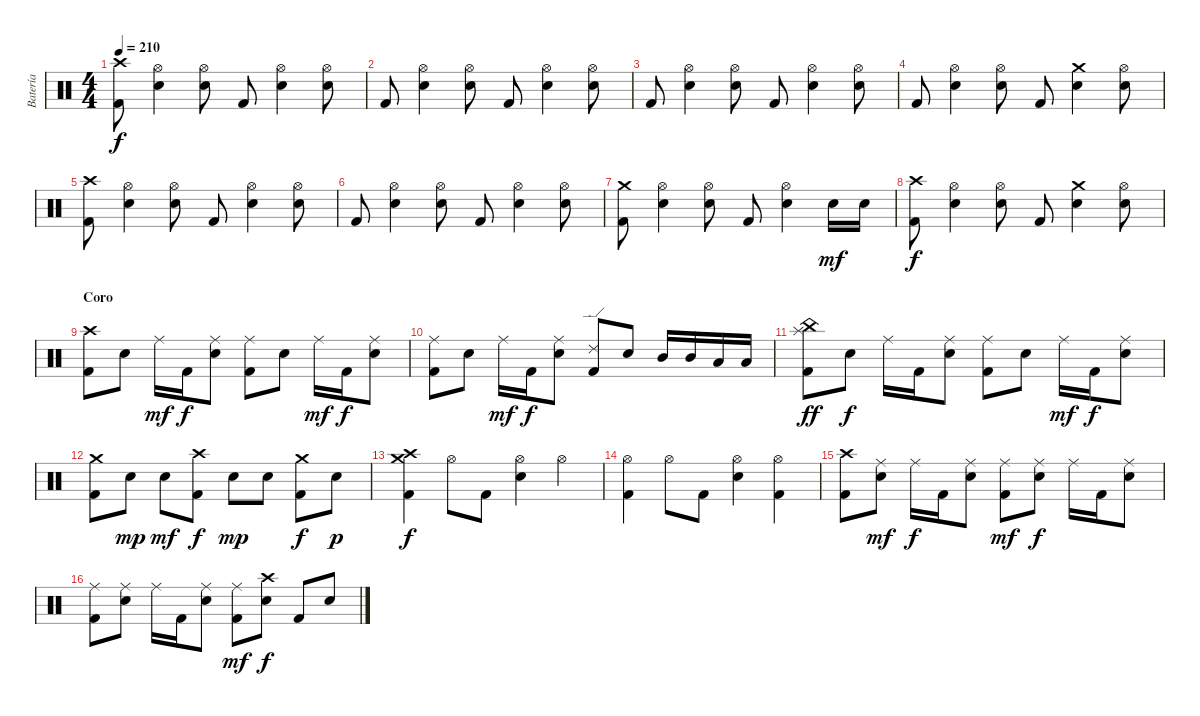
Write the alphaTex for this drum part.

\track ("Batería" "Batería") {instrument percussion}
\staff {score}
\articulation defaults
\ts (4 4)
\tempo 210
\clef neutral
\ks c
("Crash high (hit)" "Kick (hit) 2").8{dy f} ("Hi-Hat (open)" "Electric Snare (hit)").4 ("Hi-Hat (open)" "Electric Snare (hit)").8 "Kick (hit) 2".8 ("Hi-Hat (open)" "Electric Snare (hit)").4 ("Hi-Hat (open)" "Electric Snare (hit)").8 |
"Kick (hit) 2".8 ("Hi-Hat (open)" "Electric Snare (hit)").4 ("Hi-Hat (open)" "Electric Snare (hit)").8 "Kick (hit) 2".8 ("Hi-Hat (open)" "Electric Snare (hit)").4 ("Hi-Hat (open)" "Electric Snare (hit)").8 |
"Kick (hit) 2".8 ("Hi-Hat (open)" "Electric Snare (hit)").4 ("Hi-Hat (open)" "Electric Snare (hit)").8 "Kick (hit) 2".8 ("Hi-Hat (open)" "Electric Snare (hit)").4 ("Hi-Hat (open)" "Electric Snare (hit)").8 |
"Kick (hit) 2".8 ("Hi-Hat (open)" "Electric Snare (hit)").4 ("Hi-Hat (open)" "Electric Snare (hit)").8 "Kick (hit) 2".8 ("Crash medium (hit)" "Electric Snare (hit)").4 ("Hi-Hat (open)" "Electric Snare (hit)").8 |
("Crash high (hit)" "Kick (hit) 2").8 ("Hi-Hat (open)" "Electric Snare (hit)").4 ("Hi-Hat (open)" "Electric Snare (hit)").8 "Kick (hit) 2".8 ("Hi-Hat (open)" "Electric Snare (hit)").4 ("Hi-Hat (open)" "Electric Snare (hit)").8 |
"Kick (hit) 2".8 ("Hi-Hat (open)" "Electric Snare (hit)").4 ("Hi-Hat (open)" "Electric Snare (hit)").8 "Kick (hit) 2".8 ("Hi-Hat (open)" "Electric Snare (hit)").4 ("Hi-Hat (open)" "Electric Snare (hit)").8 |
("Crash medium (hit)" "Kick (hit) 2").8 ("Hi-Hat (open)" "Electric Snare (hit)").4 ("Hi-Hat (open)" "Electric Snare (hit)").8 "Kick (hit) 2".8 ("Hi-Hat (open)" "Electric Snare (hit)").4 "Electric Snare (hit)".16{dy mf} "Electric Snare (hit)".16 |
("Crash high (hit)" "Kick (hit) 2").8{dy f} ("Hi-Hat (open)" "Electric Snare (hit)").4 ("Hi-Hat (open)" "Electric Snare (hit)").8 "Kick (hit) 2".8 ("Crash medium (hit)" "Electric Snare (hit)").4 ("Hi-Hat (open)" "Electric Snare (hit)").8 |
\section ("" "Coro")
("Crash high (hit)" "Kick (hit) 2").8 "Electric Snare (hit)".8 "Ride (middle)".16{dy mf} "Kick (hit) 2".16{dy f} ("Ride (middle)" "Electric Snare (hit)").8 ("Ride (middle)" "Kick (hit) 2").8 "Electric Snare (hit)".8 "Ride (middle)".16{dy mf} "Kick (hit) 2".16{dy f} ("Ride (middle)" "Electric Snare (hit)").8 |
("Ride (middle)" "Kick (hit) 2").8 "Electric Snare (hit)".8 "Ride (middle)".16{dy mf} "Kick (hit) 2".16{dy f} ("Ride (middle)" "Electric Snare (hit)").8 ("Ride (edge) 2" "Kick (hit) 2").8 "Electric Snare (hit)".8 "Mid Tom (hit)".16 "Mid Tom (hit)".16 "Low Tom (hit)".16 "Low Tom (hit)".16 |
("Splash (hit)" "China (hit)" "Kick (hit) 2").8{dy ff} "Electric Snare (hit)".8{dy f} "Ride (middle)".16 "Kick (hit) 2".16 ("Ride (middle)" "Electric Snare (hit)").8 ("Ride (middle)" "Kick (hit) 2").8 "Electric Snare (hit)".8 "Ride (middle)".16{dy mf} "Kick (hit) 2".16{dy f} ("Ride (middle)" "Electric Snare (hit)").8 |
("Crash medium (hit)" "Kick (hit) 2").8 "Electric Snare (hit)".8{dy mp} "Electric Snare (hit)".8{dy mf} ("Crash high (hit)" "Kick (hit) 2").8{dy f} "Electric Snare (hit)".8{dy mp} "Electric Snare (hit)".8 ("Crash medium (hit)" "Kick (hit) 2").8{dy f} "Electric Snare (hit)".8{dy p} |
("Crash medium (hit)" "Crash high (hit)" "Kick (hit) 2").4{dy f} "Hi-Hat (open)".8 "Kick (hit) 2".8 ("Hi-Hat (open)" "Electric Snare (hit)").4 "Hi-Hat (open)".4 |
("Hi-Hat (open)" "Kick (hit) 2").4 "Hi-Hat (open)".8 "Kick (hit) 2".8 ("Hi-Hat (open)" "Electric Snare (hit)").4 ("Hi-Hat (open)" "Kick (hit) 2").4 |
("Crash high (hit)" "Kick (hit) 2").8 ("Ride (middle)" "Electric Snare (hit)").8{dy mf} "Ride (middle)".16{dy f} "Kick (hit) 2".16 ("Ride (middle)" "Electric Snare (hit)").8 ("Ride (middle)" "Kick (hit) 2").8{dy mf} ("Ride (middle)" "Electric Snare (hit)").8{dy f} "Ride (middle)".16 "Kick (hit) 2".16 ("Ride (middle)" "Electric Snare (hit)").8 |
("Ride (middle)" "Kick (hit) 2").8 ("Ride (middle)" "Electric Snare (hit)").8 "Ride (middle)".16 "Kick (hit) 2".16 ("Ride (middle)" "Electric Snare (hit)").8 ("Ride (middle)" "Kick (hit) 2").8{dy mf} ("Crash high (hit)" "Electric Snare (hit)").8{dy f} "Kick (hit) 2".8 "Electric Snare (hit)".8
